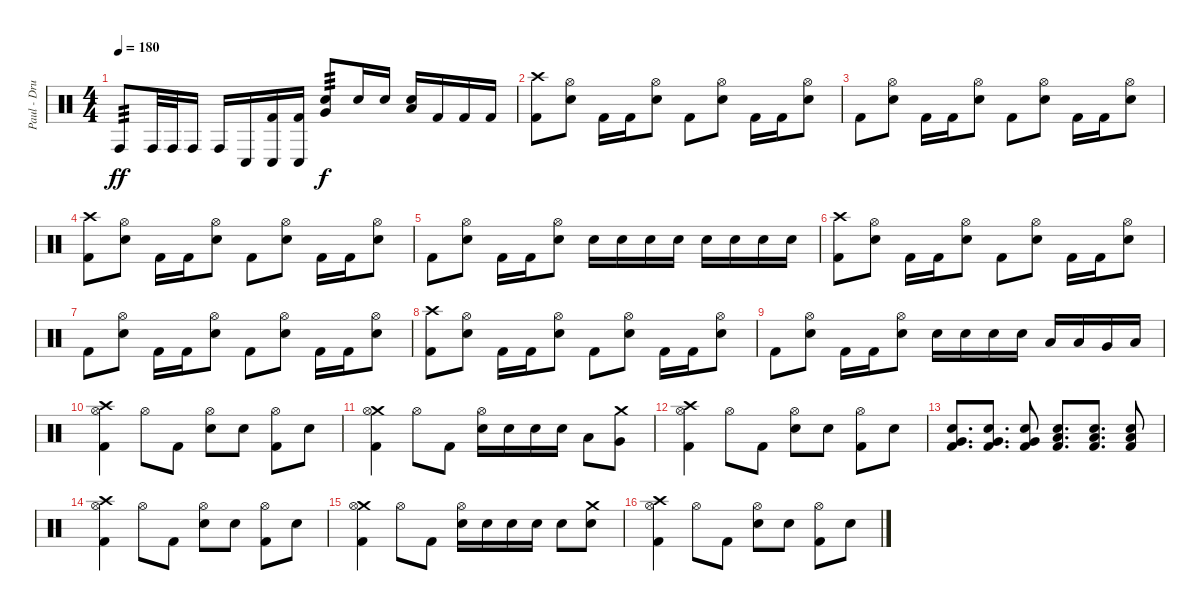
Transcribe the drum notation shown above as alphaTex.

\track ("Paul - Drums" "Paul - Dru") {instrument percussion}
\staff {score}
\articulation defaults
\ts (4 4)
\tempo 180
\clef neutral
\ks c "Conga high (hit)".8{tp 3 dy ff} "Conga high (hit)".32 "Conga high (hit)".32 "Conga high (hit)".16 "Conga high (hit)".16 "Conga low (hit)".16
("Conga low (hit)" "Kick (hit) 2").16 ("Conga low (hit)" "Kick (hit) 2").16 ("Very Low Tom (hit)" "Electric Snare (hit)").8{tp 3 dy f} "Electric Snare (hit)".16 "Electric Snare (hit)".16 ("Low Floor Tom (hit)" "Electric Snare (hit)").16 "Kick (hit) 2".16 "Kick (hit) 2".16 "Kick (hit) 2".16 |
("Crash high (hit)" "Kick (hit) 2").8 ("Hi-Hat (open)" "Electric Snare (hit)").8 "Kick (hit) 2".16 "Kick (hit) 2".16 ("Hi-Hat (open)" "Electric Snare (hit)").8 "Kick (hit) 2".8 ("Hi-Hat (open)" "Electric Snare (hit)").8 "Kick (hit) 2".16 "Kick (hit) 2".16 ("Hi-Hat (open)" "Electric Snare (hit)").8 |
"Kick (hit) 2".8 ("Hi-Hat (open)" "Electric Snare (hit)").8 "Kick (hit) 2".16 "Kick (hit) 2".16 ("Hi-Hat (open)" "Electric Snare (hit)").8 "Kick (hit) 2".8 ("Hi-Hat (open)" "Electric Snare (hit)").8 "Kick (hit) 2".16 "Kick (hit) 2".16 ("Hi-Hat (open)" "Electric Snare (hit)").8 |
("Crash high (hit)" "Kick (hit) 2").8 ("Hi-Hat (open)" "Electric Snare (hit)").8 "Kick (hit) 2".16 "Kick (hit) 2".16 ("Hi-Hat (open)" "Electric Snare (hit)").8 "Kick (hit) 2".8 ("Hi-Hat (open)" "Electric Snare (hit)").8 "Kick (hit) 2".16 "Kick (hit) 2".16 ("Hi-Hat (open)" "Electric Snare (hit)").8 |
"Kick (hit) 2".8 ("Hi-Hat (open)" "Electric Snare (hit)").8 "Kick (hit) 2".16 "Kick (hit) 2".16 ("Hi-Hat (open)" "Electric Snare (hit)").8 "Electric Snare (hit)".16 "Electric Snare (hit)".16 "Electric Snare (hit)".16 "Electric Snare (hit)".16 "Electric Snare (hit)".16 "Electric Snare (hit)".16 "Electric Snare (hit)".16 "Electric Snare (hit)".16 |
("Crash high (hit)" "Kick (hit) 2").8 ("Hi-Hat (open)" "Electric Snare (hit)").8 "Kick (hit) 2".16 "Kick (hit) 2".16 ("Hi-Hat (open)" "Electric Snare (hit)").8 "Kick (hit) 2".8 ("Hi-Hat (open)" "Electric Snare (hit)").8 "Kick (hit) 2".16 "Kick (hit) 2".16 ("Hi-Hat (open)" "Electric Snare (hit)").8 |
"Kick (hit) 2".8 ("Hi-Hat (open)" "Electric Snare (hit)").8 "Kick (hit) 2".16 "Kick (hit) 2".16 ("Hi-Hat (open)" "Electric Snare (hit)").8 "Kick (hit) 2".8 ("Hi-Hat (open)" "Electric Snare (hit)").8 "Kick (hit) 2".16 "Kick (hit) 2".16 ("Hi-Hat (open)" "Electric Snare (hit)").8 |
("Crash high (hit)" "Kick (hit) 2").8 ("Hi-Hat (open)" "Electric Snare (hit)").8 "Kick (hit) 2".16 "Kick (hit) 2".16 ("Hi-Hat (open)" "Electric Snare (hit)").8 "Kick (hit) 2".8 ("Hi-Hat (open)" "Electric Snare (hit)").8 "Kick (hit) 2".16 "Kick (hit) 2".16 ("Hi-Hat (open)" "Electric Snare (hit)").8 |
"Kick (hit) 2".8 ("Hi-Hat (open)" "Electric Snare (hit)").8 "Kick (hit) 2".16 "Kick (hit) 2".16 ("Hi-Hat (open)" "Electric Snare (hit)").8 "Electric Snare (hit)".16 "Electric Snare (hit)".16 "Electric Snare (hit)".16 "Electric Snare (hit)".16 "Low Tom (hit)".16 "Low Tom (hit)".16 "Very Low Tom (hit)".16 "Low Floor Tom (hit)".16 |
("Crash high (hit)" "Hi-Hat (open)" "Kick (hit) 2").4 "Hi-Hat (open)".8 "Kick (hit) 2".8 ("Hi-Hat (open)" "Electric Snare (hit)").8 "Electric Snare (hit)".8 ("Hi-Hat (open)" "Kick (hit) 2").8 "Electric Snare (hit)".8 |
("Crash medium (hit)" "Hi-Hat (open)" "Kick (hit) 2").4 "Hi-Hat (open)".8 "Kick (hit) 2".8 ("Hi-Hat (open)" "Electric Snare (hit)").16 "Electric Snare (hit)".16 "Electric Snare (hit)".16 "Electric Snare (hit)".16 "Low Tom (hit)".8 ("Crash medium (hit)" "Very Low Tom (hit)").8 |
("Crash high (hit)" "Hi-Hat (open)" "Kick (hit) 2").4 "Hi-Hat (open)".8 "Kick (hit) 2".8 ("Hi-Hat (open)" "Electric Snare (hit)").8 "Electric Snare (hit)".8 ("Hi-Hat (open)" "Kick (hit) 2").8 "Electric Snare (hit)".8 |
("Very Low Tom (hit)" "Electric Snare (hit)" "Kick (hit) 2").8{d} ("Very Low Tom (hit)" "Electric Snare (hit)" "Kick (hit) 2").8{d} ("Very Low Tom (hit)" "Electric Snare (hit)" "Kick (hit) 2").8 ("Low Floor Tom (hit)" "Electric Snare (hit)" "Kick (hit) 2").8{d} ("Low Floor Tom (hit)" "Electric Snare (hit)" "Kick (hit) 2").8{d} ("Low Floor Tom (hit)" "Electric Snare (hit)" "Kick (hit) 2").8 |
("Crash high (hit)" "Hi-Hat (open)" "Kick (hit) 2").4 "Hi-Hat (open)".8 "Kick (hit) 2".8 ("Hi-Hat (open)" "Electric Snare (hit)").8 "Electric Snare (hit)".8 ("Hi-Hat (open)" "Kick (hit) 2").8 "Electric Snare (hit)".8 |
("Crash medium (hit)" "Hi-Hat (open)" "Kick (hit) 2").4 "Hi-Hat (open)".8 "Kick (hit) 2".8 ("Hi-Hat (open)" "Electric Snare (hit)").16 "Electric Snare (hit)".16 "Electric Snare (hit)".16 "Electric Snare (hit)".16 "Electric Snare (hit)".8 ("Crash medium (hit)" "Electric Snare (hit)").8 |
("Crash high (hit)" "Hi-Hat (open)" "Kick (hit) 2").4 "Hi-Hat (open)".8 "Kick (hit) 2".8 ("Hi-Hat (open)" "Electric Snare (hit)").8 "Electric Snare (hit)".8 ("Hi-Hat (open)" "Kick (hit) 2").8 "Electric Snare (hit)".8
